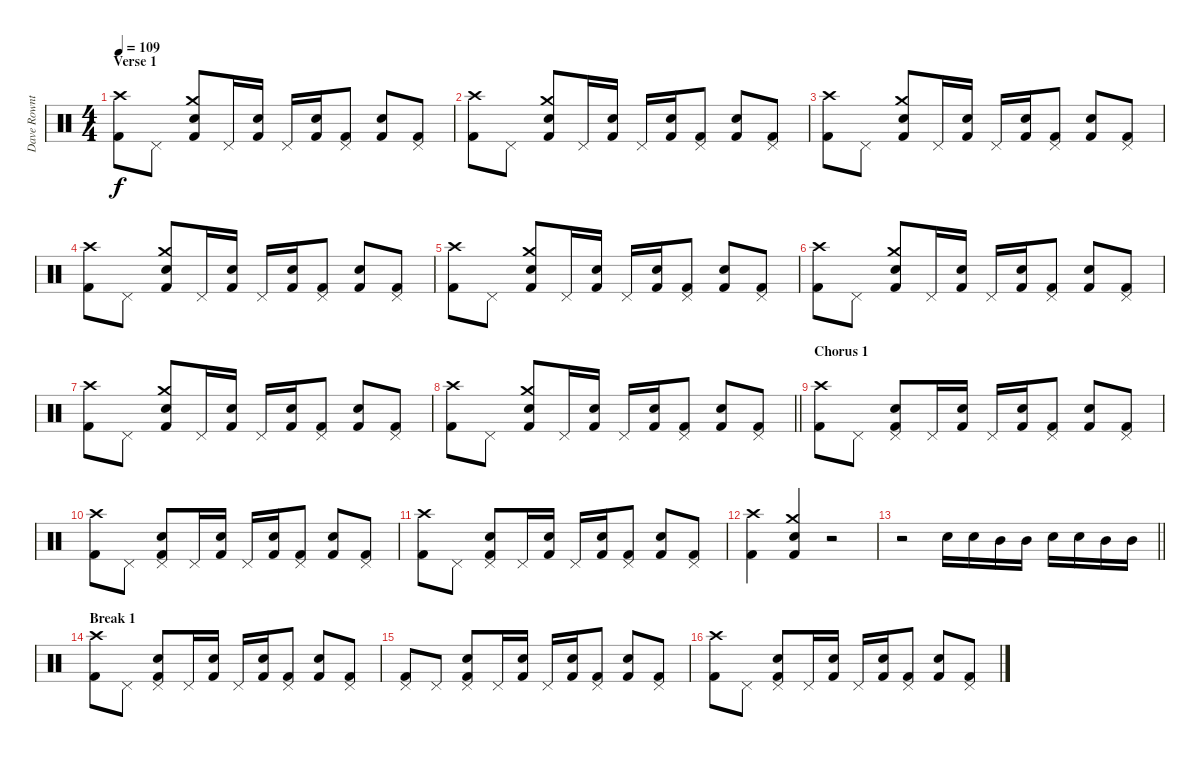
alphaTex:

\track ("Dave Rowntree - Drums" "Dave Rownt") {instrument percussion}
\staff {score}
\articulation defaults
\ts (4 4)
\section ("" "Verse 1")
\tempo 109
\clef neutral
\ks c
("Kick (hit) 2" "Crash high (hit)").8{dy f} "Pedal Hi-Hat (hit)".8 ("Kick (hit) 2" "Crash medium (hit)" "Electric Snare (hit)").8 "Pedal Hi-Hat (hit)".16 ("Kick (hit) 2" "Electric Snare (hit)").16 "Pedal Hi-Hat (hit)".16 ("Kick (hit) 2" "Electric Snare (hit)").16 ("Kick (hit) 2" "Pedal Hi-Hat (hit)").8 ("Kick (hit) 2" "Electric Snare (hit)").8 ("Kick (hit) 2" "Pedal Hi-Hat (hit)").8 |
("Kick (hit) 2" "Crash high (hit)").8 "Pedal Hi-Hat (hit)".8 ("Kick (hit) 2" "Crash medium (hit)" "Electric Snare (hit)").8 "Pedal Hi-Hat (hit)".16 ("Kick (hit) 2" "Electric Snare (hit)").16 "Pedal Hi-Hat (hit)".16 ("Kick (hit) 2" "Electric Snare (hit)").16 ("Kick (hit) 2" "Pedal Hi-Hat (hit)").8 ("Kick (hit) 2" "Electric Snare (hit)").8 ("Kick (hit) 2" "Pedal Hi-Hat (hit)").8 |
("Kick (hit) 2" "Crash high (hit)").8 "Pedal Hi-Hat (hit)".8 ("Kick (hit) 2" "Crash medium (hit)" "Electric Snare (hit)").8 "Pedal Hi-Hat (hit)".16 ("Kick (hit) 2" "Electric Snare (hit)").16 "Pedal Hi-Hat (hit)".16 ("Kick (hit) 2" "Electric Snare (hit)").16 ("Kick (hit) 2" "Pedal Hi-Hat (hit)").8 ("Kick (hit) 2" "Electric Snare (hit)").8 ("Kick (hit) 2" "Pedal Hi-Hat (hit)").8 |
("Kick (hit) 2" "Crash high (hit)").8 "Pedal Hi-Hat (hit)".8 ("Kick (hit) 2" "Crash medium (hit)" "Electric Snare (hit)").8 "Pedal Hi-Hat (hit)".16 ("Kick (hit) 2" "Electric Snare (hit)").16 "Pedal Hi-Hat (hit)".16 ("Kick (hit) 2" "Electric Snare (hit)").16 ("Kick (hit) 2" "Pedal Hi-Hat (hit)").8 ("Kick (hit) 2" "Electric Snare (hit)").8 ("Kick (hit) 2" "Pedal Hi-Hat (hit)").8 |
("Kick (hit) 2" "Crash high (hit)").8 "Pedal Hi-Hat (hit)".8 ("Kick (hit) 2" "Crash medium (hit)" "Electric Snare (hit)").8 "Pedal Hi-Hat (hit)".16 ("Kick (hit) 2" "Electric Snare (hit)").16 "Pedal Hi-Hat (hit)".16 ("Kick (hit) 2" "Electric Snare (hit)").16 ("Kick (hit) 2" "Pedal Hi-Hat (hit)").8 ("Kick (hit) 2" "Electric Snare (hit)").8 ("Kick (hit) 2" "Pedal Hi-Hat (hit)").8 |
("Kick (hit) 2" "Crash high (hit)").8 "Pedal Hi-Hat (hit)".8 ("Kick (hit) 2" "Crash medium (hit)" "Electric Snare (hit)").8 "Pedal Hi-Hat (hit)".16 ("Kick (hit) 2" "Electric Snare (hit)").16 "Pedal Hi-Hat (hit)".16 ("Kick (hit) 2" "Electric Snare (hit)").16 ("Kick (hit) 2" "Pedal Hi-Hat (hit)").8 ("Kick (hit) 2" "Electric Snare (hit)").8 ("Kick (hit) 2" "Pedal Hi-Hat (hit)").8 |
("Kick (hit) 2" "Crash high (hit)").8 "Pedal Hi-Hat (hit)".8 ("Kick (hit) 2" "Crash medium (hit)" "Electric Snare (hit)").8 "Pedal Hi-Hat (hit)".16 ("Kick (hit) 2" "Electric Snare (hit)").16 "Pedal Hi-Hat (hit)".16 ("Kick (hit) 2" "Electric Snare (hit)").16 ("Kick (hit) 2" "Pedal Hi-Hat (hit)").8 ("Kick (hit) 2" "Electric Snare (hit)").8 ("Kick (hit) 2" "Pedal Hi-Hat (hit)").8 |
\barLineRight lightlight
("Kick (hit) 2" "Crash high (hit)").8 "Pedal Hi-Hat (hit)".8 ("Kick (hit) 2" "Crash medium (hit)" "Electric Snare (hit)").8 "Pedal Hi-Hat (hit)".16 ("Kick (hit) 2" "Electric Snare (hit)").16 "Pedal Hi-Hat (hit)".16 ("Kick (hit) 2" "Electric Snare (hit)").16 ("Kick (hit) 2" "Pedal Hi-Hat (hit)").8 ("Kick (hit) 2" "Electric Snare (hit)").8 ("Kick (hit) 2" "Pedal Hi-Hat (hit)").8 |
\section ("" "Chorus 1")
("Kick (hit) 2" "Crash high (hit)").8 "Pedal Hi-Hat (hit)".8 ("Kick (hit) 2" "Pedal Hi-Hat (hit)" "Electric Snare (hit)").8 "Pedal Hi-Hat (hit)".16 ("Kick (hit) 2" "Electric Snare (hit)").16 "Pedal Hi-Hat (hit)".16 ("Kick (hit) 2" "Electric Snare (hit)").16 ("Kick (hit) 2" "Pedal Hi-Hat (hit)").8 ("Kick (hit) 2" "Electric Snare (hit)").8 ("Kick (hit) 2" "Pedal Hi-Hat (hit)").8 |
("Kick (hit) 2" "Crash high (hit)").8 "Pedal Hi-Hat (hit)".8 ("Kick (hit) 2" "Pedal Hi-Hat (hit)" "Electric Snare (hit)").8 "Pedal Hi-Hat (hit)".16 ("Kick (hit) 2" "Electric Snare (hit)").16 "Pedal Hi-Hat (hit)".16 ("Kick (hit) 2" "Electric Snare (hit)").16 ("Kick (hit) 2" "Pedal Hi-Hat (hit)").8 ("Kick (hit) 2" "Electric Snare (hit)").8 ("Kick (hit) 2" "Pedal Hi-Hat (hit)").8 |
("Kick (hit) 2" "Crash high (hit)").8 "Pedal Hi-Hat (hit)".8 ("Kick (hit) 2" "Pedal Hi-Hat (hit)" "Electric Snare (hit)").8 "Pedal Hi-Hat (hit)".16 ("Kick (hit) 2" "Electric Snare (hit)").16 "Pedal Hi-Hat (hit)".16 ("Kick (hit) 2" "Electric Snare (hit)").16 ("Kick (hit) 2" "Pedal Hi-Hat (hit)").8 ("Kick (hit) 2" "Electric Snare (hit)").8 ("Kick (hit) 2" "Pedal Hi-Hat (hit)").8 |
("Kick (hit) 2" "Crash high (hit)").4 ("Kick (hit) 2" "Crash medium (hit)" "Electric Snare (hit)").4 r.2 |
\barLineRight lightlight
r.2 "Electric Snare (hit)".16 "Electric Snare (hit)".16 "Mid Tom (hit)".16 "Mid Tom (hit)".16 "Electric Snare (hit)".16 "Electric Snare (hit)".16 "Mid Tom (hit)".16 "Mid Tom (hit)".16 |
\section ("" "Break 1")
("Kick (hit) 2" "Crash high (hit)").8 "Pedal Hi-Hat (hit)".8 ("Kick (hit) 2" "Pedal Hi-Hat (hit)" "Electric Snare (hit)").8 "Pedal Hi-Hat (hit)".16 ("Kick (hit) 2" "Electric Snare (hit)").16 "Pedal Hi-Hat (hit)".16 ("Kick (hit) 2" "Electric Snare (hit)").16 ("Kick (hit) 2" "Pedal Hi-Hat (hit)").8 ("Kick (hit) 2" "Electric Snare (hit)").8 ("Kick (hit) 2" "Pedal Hi-Hat (hit)").8 |
("Kick (hit) 2" "Pedal Hi-Hat (hit)").8 "Pedal Hi-Hat (hit)".8 ("Kick (hit) 2" "Pedal Hi-Hat (hit)" "Electric Snare (hit)").8 "Pedal Hi-Hat (hit)".16 ("Kick (hit) 2" "Electric Snare (hit)").16 "Pedal Hi-Hat (hit)".16 ("Kick (hit) 2" "Electric Snare (hit)").16 ("Kick (hit) 2" "Pedal Hi-Hat (hit)").8 ("Kick (hit) 2" "Electric Snare (hit)").8 ("Kick (hit) 2" "Pedal Hi-Hat (hit)").8 |
("Kick (hit) 2" "Crash high (hit)").8 "Pedal Hi-Hat (hit)".8 ("Kick (hit) 2" "Pedal Hi-Hat (hit)" "Electric Snare (hit)").8 "Pedal Hi-Hat (hit)".16 ("Kick (hit) 2" "Electric Snare (hit)").16 "Pedal Hi-Hat (hit)".16 ("Kick (hit) 2" "Electric Snare (hit)").16 ("Kick (hit) 2" "Pedal Hi-Hat (hit)").8 ("Kick (hit) 2" "Electric Snare (hit)").8 ("Kick (hit) 2" "Pedal Hi-Hat (hit)").8
